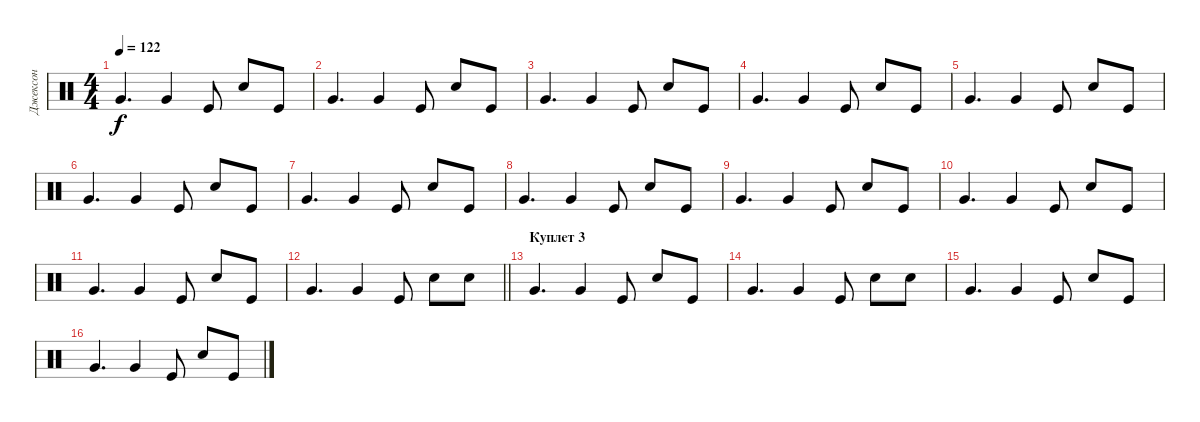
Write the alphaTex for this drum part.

\track ("Джексон" "Джексон") {instrument percussion}
\staff {score}
\articulation defaults
\ts (4 4)
\tempo 122
\clef neutral
\ks c "Very Low Tom (hit)".4{d dy f} "Very Low Tom (hit)".4 "Kick (hit)".8 "Snare (hit) 2".8 "Kick (hit)".8
|
"Very Low Tom (hit)".4{d} "Very Low Tom (hit)".4 "Kick (hit)".8 "Snare (hit) 2".8 "Kick (hit)".8 |
"Very Low Tom (hit)".4{d} "Very Low Tom (hit)".4 "Kick (hit)".8 "Snare (hit) 2".8 "Kick (hit)".8 |
"Very Low Tom (hit)".4{d} "Very Low Tom (hit)".4 "Kick (hit)".8 "Snare (hit) 2".8 "Kick (hit)".8 |
"Very Low Tom (hit)".4{d} "Very Low Tom (hit)".4 "Kick (hit)".8 "Snare (hit) 2".8 "Kick (hit)".8 |
"Very Low Tom (hit)".4{d} "Very Low Tom (hit)".4 "Kick (hit)".8 "Snare (hit) 2".8 "Kick (hit)".8 |
"Very Low Tom (hit)".4{d} "Very Low Tom (hit)".4 "Kick (hit)".8 "Snare (hit) 2".8 "Kick (hit)".8 |
"Very Low Tom (hit)".4{d} "Very Low Tom (hit)".4 "Kick (hit)".8 "Snare (hit) 2".8 "Kick (hit)".8 |
"Very Low Tom (hit)".4{d} "Very Low Tom (hit)".4 "Kick (hit)".8 "Snare (hit) 2".8 "Kick (hit)".8 |
"Very Low Tom (hit)".4{d} "Very Low Tom (hit)".4 "Kick (hit)".8 "Snare (hit) 2".8 "Kick (hit)".8 |
"Very Low Tom (hit)".4{d} "Very Low Tom (hit)".4 "Kick (hit)".8 "Snare (hit) 2".8 "Kick (hit)".8 |
\barLineRight lightlight "Very Low Tom (hit)".4{d} "Very Low Tom (hit)".4 "Kick (hit)".8 "Snare (hit) 2".8 "Snare (hit) 2".8
|
\section ("" "Куплет 3")
"Very Low Tom (hit)".4{d} "Very Low Tom (hit)".4 "Kick (hit)".8 "Snare (hit) 2".8 "Kick (hit)".8 |
"Very Low Tom (hit)".4{d} "Very Low Tom (hit)".4 "Kick (hit)".8 "Snare (hit) 2".8 "Snare (hit) 2".8 |
"Very Low Tom (hit)".4{d} "Very Low Tom (hit)".4 "Kick (hit)".8 "Snare (hit) 2".8 "Kick (hit)".8 |
"Very Low Tom (hit)".4{d} "Very Low Tom (hit)".4 "Kick (hit)".8 "Snare (hit) 2".8 "Kick (hit)".8
